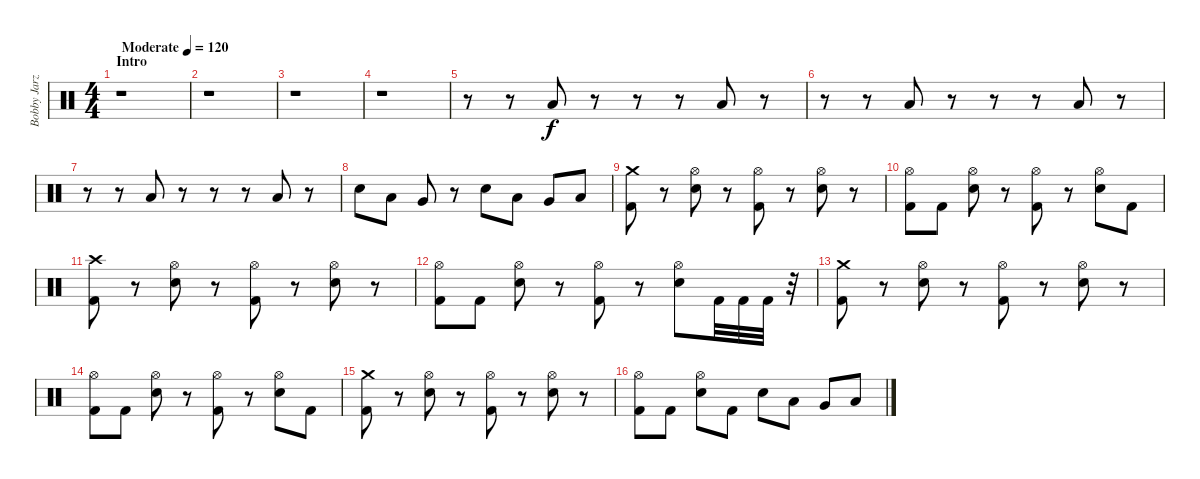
\track ("Bobby Jarzombek - Drums" "Bobby Jarz") {instrument percussion}
\staff {score}
\articulation defaults
\ts (4 4)
\section ("" "Intro")
\tempo (120 "Moderate")
\clef neutral
\ks c
r.1{dy f} |
r.1 |
r.1 |
r.1 |
r.8 r.8 "Low Floor Tom (hit)".8 r.8 r.8 r.8 "Low Floor Tom (hit)".8 r.8 |
r.8 r.8 "Low Floor Tom (hit)".8 r.8 r.8 r.8 "Low Floor Tom (hit)".8 r.8 |
r.8 r.8 "Low Floor Tom (hit)".8 r.8 r.8 r.8 "Low Floor Tom (hit)".8 r.8 |
"Electric Snare (hit)".8 "Low Tom (hit)".8 "Very Low Tom (hit)".8 r.8 "Electric Snare (hit)".8 "Low Tom (hit)".8 "Very Low Tom (hit)".8 "Low Floor Tom (hit)".8 |
("Crash medium (hit)" "Kick (hit) 2").8 r.8 ("Hi-Hat (open)" "Electric Snare (hit)").8 r.8 ("Hi-Hat (open)" "Kick (hit) 2").8 r.8 ("Hi-Hat (open)" "Electric Snare (hit)").8 r.8 |
("Hi-Hat (open)" "Kick (hit) 2").8 "Kick (hit) 2".8 ("Hi-Hat (open)" "Electric Snare (hit)").8 r.8 ("Hi-Hat (open)" "Kick (hit) 2").8 r.8 ("Hi-Hat (open)" "Electric Snare (hit)").8 "Kick (hit) 2".8 |
("Crash high (hit)" "Kick (hit) 2").8 r.8 ("Hi-Hat (open)" "Electric Snare (hit)").8 r.8 ("Hi-Hat (open)" "Kick (hit) 2").8 r.8 ("Hi-Hat (open)" "Electric Snare (hit)").8 r.8 |
("Hi-Hat (open)" "Kick (hit) 2").8 "Kick (hit) 2".8 ("Hi-Hat (open)" "Electric Snare (hit)").8 r.8 ("Hi-Hat (open)" "Kick (hit) 2").8 r.8 ("Hi-Hat (open)" "Electric Snare (hit)").8 "Kick (hit) 2".32 "Kick (hit) 2".32 "Kick (hit) 2".32 r.32 |
("Crash medium (hit)" "Kick (hit) 2").8 r.8 ("Hi-Hat (open)" "Electric Snare (hit)").8 r.8 ("Hi-Hat (open)" "Kick (hit) 2").8 r.8 ("Hi-Hat (open)" "Electric Snare (hit)").8 r.8 |
("Hi-Hat (open)" "Kick (hit) 2").8 "Kick (hit) 2".8 ("Hi-Hat (open)" "Electric Snare (hit)").8 r.8 ("Hi-Hat (open)" "Kick (hit) 2").8 r.8 ("Hi-Hat (open)" "Electric Snare (hit)").8 "Kick (hit) 2".8 |
("Crash medium (hit)" "Kick (hit) 2").8 r.8 ("Hi-Hat (open)" "Electric Snare (hit)").8 r.8 ("Hi-Hat (open)" "Kick (hit) 2").8 r.8 ("Hi-Hat (open)" "Electric Snare (hit)").8 r.8 |
("Hi-Hat (open)" "Kick (hit) 2").8 "Kick (hit) 2".8 ("Hi-Hat (open)" "Electric Snare (hit)").8 "Kick (hit) 2".8 "Electric Snare (hit)".8 "Low Tom (hit)".8 "Very Low Tom (hit)".8 "Low Floor Tom (hit)".8
